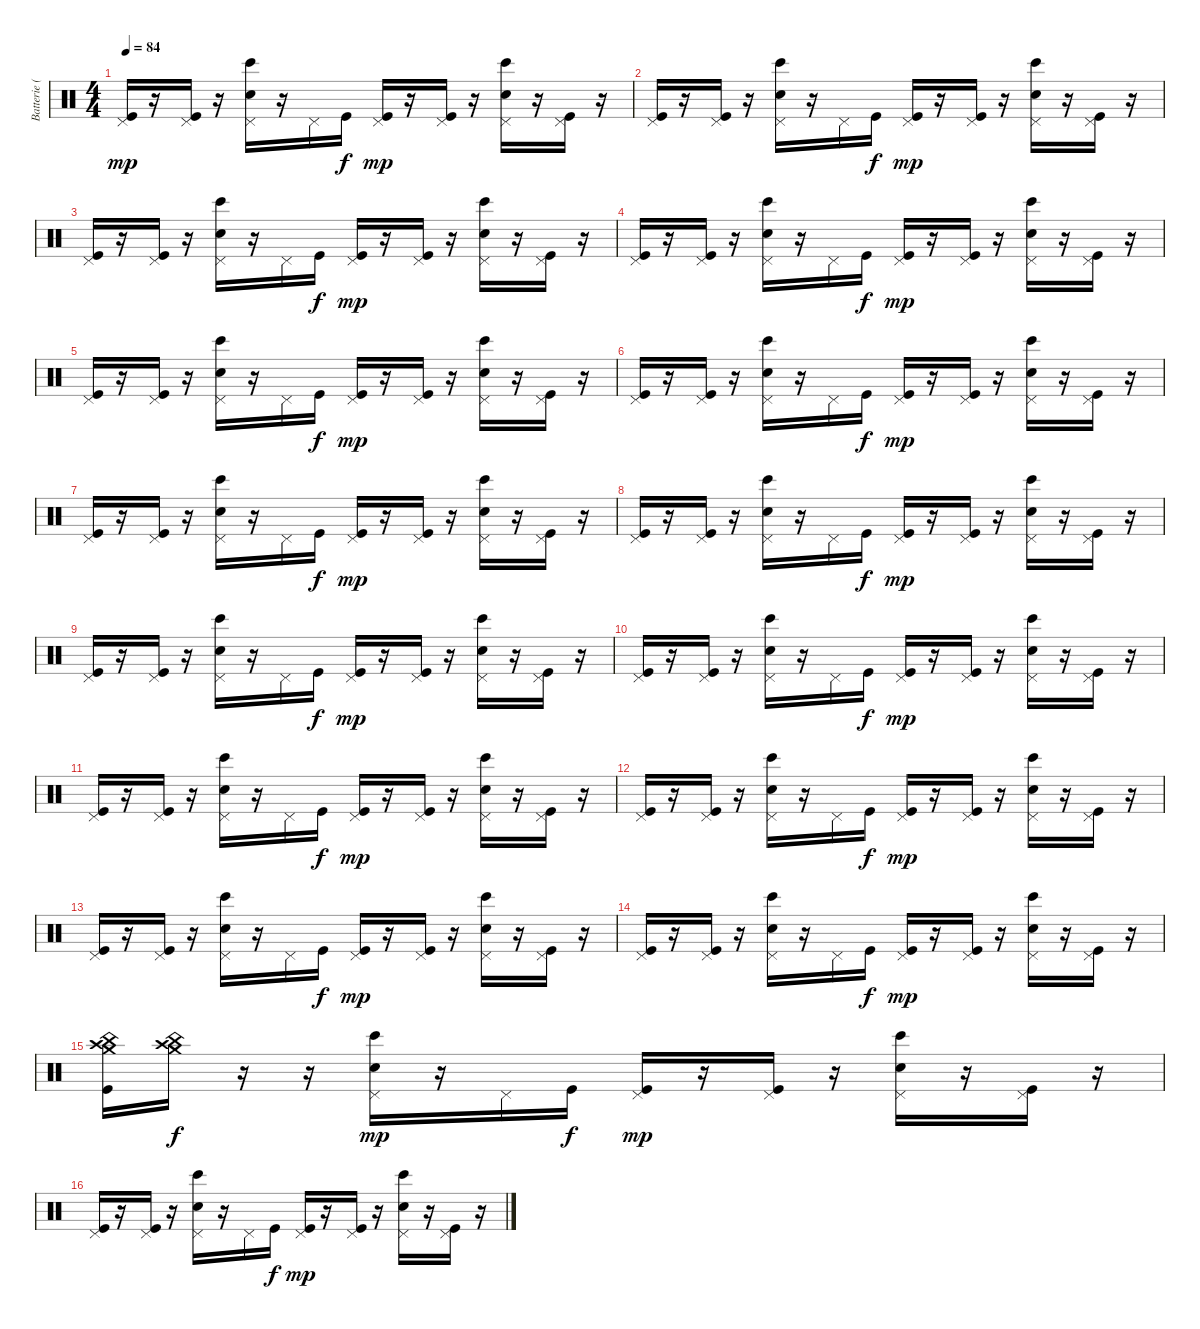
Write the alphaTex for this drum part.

\track ("Batterie (+hand claps)" "Batterie (") {instrument percussion}
\staff {score}
\articulation defaults
\ts (4 4)
\tempo 84
\clef neutral
\ks c
("Pedal Hi-Hat (hit)" "Kick (hit)").16{dy mp} r.16 ("Pedal Hi-Hat (hit)" "Kick (hit)").16 r.16 ("Pedal Hi-Hat (hit)" "Hand Clap (hit)" "Bongo High (hit)").16 r.16 "Pedal Hi-Hat (hit)".16 "Kick (hit)".16{dy f} ("Pedal Hi-Hat (hit)" "Kick (hit)").16{dy mp} r.16 ("Pedal Hi-Hat (hit)" "Kick (hit)").16 r.16 ("Pedal Hi-Hat (hit)" "Hand Clap (hit)" "Bongo High (hit)").16 r.16 ("Pedal Hi-Hat (hit)" "Kick (hit)").16 r.16 |
("Pedal Hi-Hat (hit)" "Kick (hit)").16 r.16 ("Pedal Hi-Hat (hit)" "Kick (hit)").16 r.16 ("Pedal Hi-Hat (hit)" "Hand Clap (hit)" "Bongo High (hit)").16 r.16 "Pedal Hi-Hat (hit)".16 "Kick (hit)".16{dy f} ("Pedal Hi-Hat (hit)" "Kick (hit)").16{dy mp} r.16 ("Pedal Hi-Hat (hit)" "Kick (hit)").16 r.16 ("Pedal Hi-Hat (hit)" "Hand Clap (hit)" "Bongo High (hit)").16 r.16 ("Pedal Hi-Hat (hit)" "Kick (hit)").16 r.16 |
("Pedal Hi-Hat (hit)" "Kick (hit)").16 r.16 ("Pedal Hi-Hat (hit)" "Kick (hit)").16 r.16 ("Pedal Hi-Hat (hit)" "Hand Clap (hit)" "Bongo High (hit)").16 r.16 "Pedal Hi-Hat (hit)".16 "Kick (hit)".16{dy f} ("Pedal Hi-Hat (hit)" "Kick (hit)").16{dy mp} r.16 ("Pedal Hi-Hat (hit)" "Kick (hit)").16 r.16 ("Pedal Hi-Hat (hit)" "Hand Clap (hit)" "Bongo High (hit)").16 r.16 ("Pedal Hi-Hat (hit)" "Kick (hit)").16 r.16 |
("Pedal Hi-Hat (hit)" "Kick (hit)").16 r.16 ("Pedal Hi-Hat (hit)" "Kick (hit)").16 r.16 ("Pedal Hi-Hat (hit)" "Hand Clap (hit)" "Bongo High (hit)").16 r.16 "Pedal Hi-Hat (hit)".16 "Kick (hit)".16{dy f} ("Pedal Hi-Hat (hit)" "Kick (hit)").16{dy mp} r.16 ("Pedal Hi-Hat (hit)" "Kick (hit)").16 r.16 ("Pedal Hi-Hat (hit)" "Hand Clap (hit)" "Bongo High (hit)").16 r.16 ("Pedal Hi-Hat (hit)" "Kick (hit)").16 r.16 |
("Pedal Hi-Hat (hit)" "Kick (hit)").16 r.16 ("Pedal Hi-Hat (hit)" "Kick (hit)").16 r.16 ("Pedal Hi-Hat (hit)" "Hand Clap (hit)" "Bongo High (hit)").16 r.16 "Pedal Hi-Hat (hit)".16 "Kick (hit)".16{dy f} ("Pedal Hi-Hat (hit)" "Kick (hit)").16{dy mp} r.16 ("Pedal Hi-Hat (hit)" "Kick (hit)").16 r.16 ("Pedal Hi-Hat (hit)" "Hand Clap (hit)" "Bongo High (hit)").16 r.16 ("Pedal Hi-Hat (hit)" "Kick (hit)").16 r.16 |
("Pedal Hi-Hat (hit)" "Kick (hit)").16 r.16 ("Pedal Hi-Hat (hit)" "Kick (hit)").16 r.16 ("Pedal Hi-Hat (hit)" "Hand Clap (hit)" "Bongo High (hit)").16 r.16 "Pedal Hi-Hat (hit)".16 "Kick (hit)".16{dy f} ("Pedal Hi-Hat (hit)" "Kick (hit)").16{dy mp} r.16 ("Pedal Hi-Hat (hit)" "Kick (hit)").16 r.16 ("Pedal Hi-Hat (hit)" "Hand Clap (hit)" "Bongo High (hit)").16 r.16 ("Pedal Hi-Hat (hit)" "Kick (hit)").16 r.16 |
("Pedal Hi-Hat (hit)" "Kick (hit)").16 r.16 ("Pedal Hi-Hat (hit)" "Kick (hit)").16 r.16 ("Pedal Hi-Hat (hit)" "Hand Clap (hit)" "Bongo High (hit)").16 r.16 "Pedal Hi-Hat (hit)".16 "Kick (hit)".16{dy f} ("Pedal Hi-Hat (hit)" "Kick (hit)").16{dy mp} r.16 ("Pedal Hi-Hat (hit)" "Kick (hit)").16 r.16 ("Pedal Hi-Hat (hit)" "Hand Clap (hit)" "Bongo High (hit)").16 r.16 ("Pedal Hi-Hat (hit)" "Kick (hit)").16 r.16 |
("Pedal Hi-Hat (hit)" "Kick (hit)").16 r.16 ("Pedal Hi-Hat (hit)" "Kick (hit)").16 r.16 ("Pedal Hi-Hat (hit)" "Hand Clap (hit)" "Bongo High (hit)").16 r.16 "Pedal Hi-Hat (hit)".16 "Kick (hit)".16{dy f} ("Pedal Hi-Hat (hit)" "Kick (hit)").16{dy mp} r.16 ("Pedal Hi-Hat (hit)" "Kick (hit)").16 r.16 ("Pedal Hi-Hat (hit)" "Hand Clap (hit)" "Bongo High (hit)").16 r.16 ("Pedal Hi-Hat (hit)" "Kick (hit)").16 r.16 |
("Pedal Hi-Hat (hit)" "Kick (hit)").16 r.16 ("Pedal Hi-Hat (hit)" "Kick (hit)").16 r.16 ("Pedal Hi-Hat (hit)" "Hand Clap (hit)" "Bongo High (hit)").16 r.16 "Pedal Hi-Hat (hit)".16 "Kick (hit)".16{dy f} ("Pedal Hi-Hat (hit)" "Kick (hit)").16{dy mp} r.16 ("Pedal Hi-Hat (hit)" "Kick (hit)").16 r.16 ("Pedal Hi-Hat (hit)" "Hand Clap (hit)" "Bongo High (hit)").16 r.16 ("Pedal Hi-Hat (hit)" "Kick (hit)").16 r.16 |
("Pedal Hi-Hat (hit)" "Kick (hit)").16 r.16 ("Pedal Hi-Hat (hit)" "Kick (hit)").16 r.16 ("Pedal Hi-Hat (hit)" "Hand Clap (hit)" "Bongo High (hit)").16 r.16 "Pedal Hi-Hat (hit)".16 "Kick (hit)".16{dy f} ("Pedal Hi-Hat (hit)" "Kick (hit)").16{dy mp} r.16 ("Pedal Hi-Hat (hit)" "Kick (hit)").16 r.16 ("Pedal Hi-Hat (hit)" "Hand Clap (hit)" "Bongo High (hit)").16 r.16 ("Pedal Hi-Hat (hit)" "Kick (hit)").16 r.16 |
("Pedal Hi-Hat (hit)" "Kick (hit)").16 r.16 ("Pedal Hi-Hat (hit)" "Kick (hit)").16 r.16 ("Pedal Hi-Hat (hit)" "Hand Clap (hit)" "Bongo High (hit)").16 r.16 "Pedal Hi-Hat (hit)".16 "Kick (hit)".16{dy f} ("Pedal Hi-Hat (hit)" "Kick (hit)").16{dy mp} r.16 ("Pedal Hi-Hat (hit)" "Kick (hit)").16 r.16 ("Pedal Hi-Hat (hit)" "Hand Clap (hit)" "Bongo High (hit)").16 r.16 ("Pedal Hi-Hat (hit)" "Kick (hit)").16 r.16 |
("Pedal Hi-Hat (hit)" "Kick (hit)").16 r.16 ("Pedal Hi-Hat (hit)" "Kick (hit)").16 r.16 ("Pedal Hi-Hat (hit)" "Hand Clap (hit)" "Bongo High (hit)").16 r.16 "Pedal Hi-Hat (hit)".16 "Kick (hit)".16{dy f} ("Pedal Hi-Hat (hit)" "Kick (hit)").16{dy mp} r.16 ("Pedal Hi-Hat (hit)" "Kick (hit)").16 r.16 ("Pedal Hi-Hat (hit)" "Hand Clap (hit)" "Bongo High (hit)").16 r.16 ("Pedal Hi-Hat (hit)" "Kick (hit)").16 r.16 |
("Pedal Hi-Hat (hit)" "Kick (hit)").16 r.16 ("Pedal Hi-Hat (hit)" "Kick (hit)").16 r.16 ("Pedal Hi-Hat (hit)" "Hand Clap (hit)" "Bongo High (hit)").16 r.16 "Pedal Hi-Hat (hit)".16 "Kick (hit)".16{dy f} ("Pedal Hi-Hat (hit)" "Kick (hit)").16{dy mp} r.16 ("Pedal Hi-Hat (hit)" "Kick (hit)").16 r.16 ("Pedal Hi-Hat (hit)" "Hand Clap (hit)" "Bongo High (hit)").16 r.16 ("Pedal Hi-Hat (hit)" "Kick (hit)").16 r.16 |
("Pedal Hi-Hat (hit)" "Kick (hit)").16 r.16 ("Pedal Hi-Hat (hit)" "Kick (hit)").16 r.16 ("Pedal Hi-Hat (hit)" "Hand Clap (hit)" "Bongo High (hit)").16 r.16 "Pedal Hi-Hat (hit)".16 "Kick (hit)".16{dy f} ("Pedal Hi-Hat (hit)" "Kick (hit)").16{dy mp} r.16 ("Pedal Hi-Hat (hit)" "Kick (hit)").16 r.16 ("Pedal Hi-Hat (hit)" "Hand Clap (hit)" "Bongo High (hit)").16 r.16 ("Pedal Hi-Hat (hit)" "Kick (hit)").16 r.16 |
("Crash high (hit)" "China (hit)" "Crash medium (hit)" "Kick (hit)").16 ("Crash high (hit)" "China (hit)" "Crash medium (hit)").16{dy f} r.16 r.16 ("Pedal Hi-Hat (hit)" "Hand Clap (hit)" "Bongo High (hit)").16{dy mp} r.16 "Pedal Hi-Hat (hit)".16 "Kick (hit)".16{dy f} ("Pedal Hi-Hat (hit)" "Kick (hit)").16{dy mp} r.16 ("Pedal Hi-Hat (hit)" "Kick (hit)").16 r.16 ("Pedal Hi-Hat (hit)" "Hand Clap (hit)" "Bongo High (hit)").16 r.16 ("Pedal Hi-Hat (hit)" "Kick (hit)").16 r.16 |
("Pedal Hi-Hat (hit)" "Kick (hit)").16 r.16 ("Pedal Hi-Hat (hit)" "Kick (hit)").16 r.16 ("Pedal Hi-Hat (hit)" "Hand Clap (hit)" "Bongo High (hit)").16 r.16 "Pedal Hi-Hat (hit)".16 "Kick (hit)".16{dy f} ("Pedal Hi-Hat (hit)" "Kick (hit)").16{dy mp} r.16 ("Pedal Hi-Hat (hit)" "Kick (hit)").16 r.16 ("Pedal Hi-Hat (hit)" "Hand Clap (hit)" "Bongo High (hit)").16 r.16 ("Pedal Hi-Hat (hit)" "Kick (hit)").16 r.16
